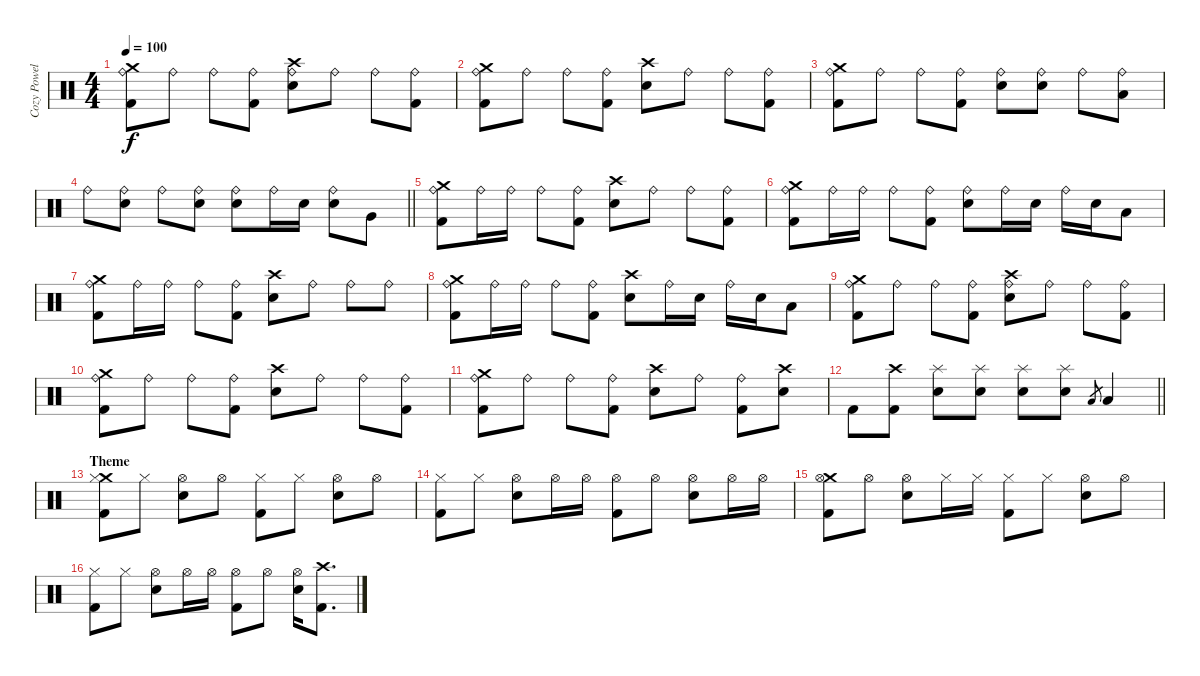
\track ("Cozy Powell " "Cozy Powel") {instrument percussion}
\staff {score}
\articulation defaults
\ts (4 4)
\tempo 100
\clef neutral
\ks c
("Crash medium (hit)" "Ride (bell)" "Kick (hit) 2").8{dy f} "Ride (bell)".8 "Ride (bell)".8 ("Ride (bell)" "Kick (hit) 2").8 ("Crash high (hit)" "Ride (bell)" "Snare (hit) 2").8 "Ride (bell)".8 "Ride (bell)".8 ("Ride (bell)" "Kick (hit) 2").8 |
("Crash medium (hit)" "Ride (bell)" "Kick (hit) 2").8 "Ride (bell)".8 "Ride (bell)".8 ("Ride (bell)" "Kick (hit) 2").8 ("Crash high (hit)" "Snare (hit) 2").8 "Ride (bell)".8 "Ride (bell)".8 ("Ride (bell)" "Kick (hit) 2").8 |
("Crash medium (hit)" "Ride (bell)" "Kick (hit) 2").8 "Ride (bell)".8 "Ride (bell)".8 ("Ride (bell)" "Kick (hit) 2").8 ("Ride (bell)" "Snare (hit) 2").8 ("Ride (bell)" "Snare (hit) 2").8 "Ride (bell)".8 ("Ride (bell)" "Low Tom (hit)").8 |
\barLineRight lightlight "Ride (bell)".8
("Ride (bell)" "Snare (hit) 2").8 "Ride (bell)".8 ("Ride (bell)" "Snare (hit) 2").8 ("Ride (bell)" "Snare (hit) 2").8 "Ride (bell)".16 "Snare (hit) 2".16 ("Ride (bell)" "Snare (hit) 2").8 "Very Low Tom (hit)".8 |
("Crash medium (hit)" "Ride (bell)" "Kick (hit) 2").8 "Ride (bell)".16 "Ride (bell)".16 "Ride (bell)".8 ("Ride (bell)" "Kick (hit) 2").8 ("Crash high (hit)" "Snare (hit) 2").8 "Ride (bell)".8 "Ride (bell)".8 ("Ride (bell)" "Kick (hit) 2").8 |
("Crash medium (hit)" "Ride (bell)" "Kick (hit) 2").8 "Ride (bell)".16 "Ride (bell)".16 "Ride (bell)".8 ("Ride (bell)" "Kick (hit) 2").8 ("Ride (bell)" "Snare (hit) 2").8 "Ride (bell)".16 "Snare (hit) 2".16 "Ride (bell)".16 "Snare (hit) 2".16 "Low Tom (hit)".8 |
("Crash medium (hit)" "Ride (bell)" "Kick (hit) 2").8 "Ride (bell)".16 "Ride (bell)".16 "Ride (bell)".8 ("Ride (bell)" "Kick (hit) 2").8 ("Crash high (hit)" "Snare (hit) 2").8 "Ride (bell)".8 "Ride (bell)".8 "Ride (bell)".8 |
("Crash medium (hit)" "Ride (bell)" "Kick (hit) 2").8 "Ride (bell)".16 "Ride (bell)".16 "Ride (bell)".8 ("Ride (bell)" "Kick (hit) 2").8 ("Crash high (hit)" "Snare (hit) 2").8 "Ride (bell)".16 "Snare (hit) 2".16 "Ride (bell)".16 "Snare (hit) 2".16 "Low Tom (hit)".8 |
("Crash medium (hit)" "Ride (bell)" "Kick (hit) 2").8 "Ride (bell)".8 "Ride (bell)".8 ("Ride (bell)" "Kick (hit) 2").8 ("Crash high (hit)" "Ride (bell)" "Snare (hit) 2").8 "Ride (bell)".8 "Ride (bell)".8 ("Ride (bell)" "Kick (hit) 2").8 |
("Crash medium (hit)" "Ride (bell)" "Kick (hit) 2").8 "Ride (bell)".8 "Ride (bell)".8 ("Ride (bell)" "Kick (hit) 2").8 ("Crash high (hit)" "Snare (hit) 2").8 "Ride (bell)".8 "Ride (bell)".8 ("Ride (bell)" "Kick (hit) 2").8 |
("Crash medium (hit)" "Ride (bell)" "Kick (hit) 2").8 "Ride (bell)".8 "Ride (bell)".8 ("Ride (bell)" "Kick (hit) 2").8 ("Crash high (hit)" "Snare (hit) 2").8 "Ride (bell)".8 ("Ride (bell)" "Kick (hit) 2").8 ("Crash high (hit)" "Snare (hit) 2").8 |
\barLineRight lightlight "Kick (hit) 2".8
("Crash high (hit)" "Kick (hit) 2").8 ("Splash (hit)" "Snare (hit) 2").8 ("Splash (hit)" "Snare (hit) 2").8 ("Splash (hit)" "Snare (hit) 2").8 ("Splash (hit)" "Snare (hit) 2").8 "Low Tom (hit)".8{gr} "Low Tom (hit)".4 |
\section ("" "Theme")
("Crash medium (hit)" "Hi-Hat (closed)" "Kick (hit) 2").8 "Hi-Hat (closed)".8 ("Hi-Hat (open)" "Snare (hit) 2").8 "Hi-Hat (open)".8 ("Hi-Hat (closed)" "Kick (hit) 2").8 "Hi-Hat (closed)".8 ("Hi-Hat (open)" "Snare (hit) 2").8 "Hi-Hat (open)".8 |
("Hi-Hat (closed)" "Kick (hit) 2").8 "Hi-Hat (closed)".8 ("Hi-Hat (open)" "Snare (hit) 2").8 "Hi-Hat (open)".16 "Hi-Hat (open)".16 ("Hi-Hat (open)" "Kick (hit) 2").8 "Hi-Hat (open)".8 ("Hi-Hat (open)" "Snare (hit) 2").8 "Hi-Hat (open)".16 "Hi-Hat (open)".16 |
("Crash medium (hit)" "Hi-Hat (open)" "Kick (hit) 2").8 "Hi-Hat (open)".8 ("Hi-Hat (open)" "Snare (hit) 2").8 "Hi-Hat (closed)".16 "Hi-Hat (closed)".16 ("Hi-Hat (closed)" "Kick (hit) 2").8 "Hi-Hat (closed)".8 ("Hi-Hat (open)" "Snare (hit) 2").8 "Hi-Hat (open)".8 |
("Hi-Hat (closed)" "Kick (hit) 2").8 "Hi-Hat (closed)".8 ("Hi-Hat (open)" "Snare (hit) 2").8 "Hi-Hat (open)".16 "Hi-Hat (open)".16 ("Hi-Hat (open)" "Kick (hit) 2").8 "Hi-Hat (open)".8 ("Hi-Hat (open)" "Snare (hit) 2").16 ("Crash high (hit)" "Kick (hit) 2").8{d}
